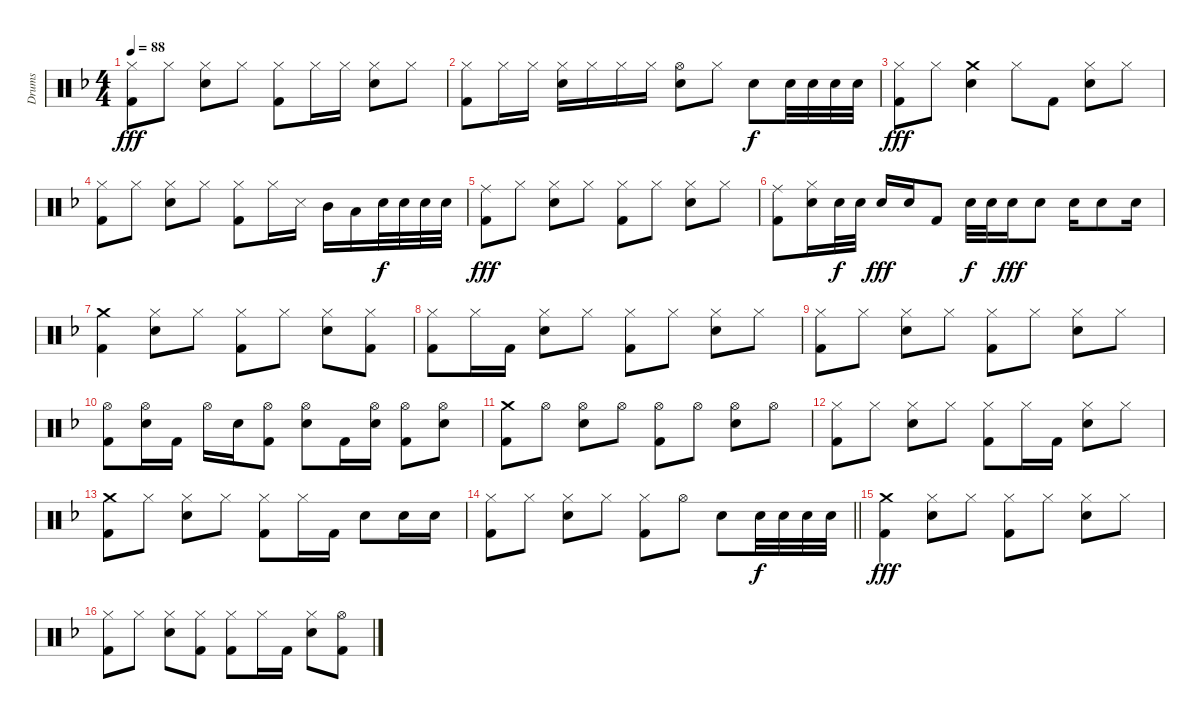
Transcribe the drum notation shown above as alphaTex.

\track ("Drums" "Drums") {instrument percussion}
\staff {score}
\articulation defaults
\ts (4 4)
\tempo 88
\clef neutral
\ks dminor
("Hi-Hat (closed)" "Kick (hit) 2").8{dy fff} "Hi-Hat (closed)".8 ("Hi-Hat (closed)" "Snare (hit) 2").8 "Hi-Hat (closed)".8 ("Hi-Hat (closed)" "Kick (hit) 2").8 "Hi-Hat (closed)".16 "Hi-Hat (closed)".16 ("Hi-Hat (closed)" "Snare (hit) 2").8 "Hi-Hat (closed)".8 |
("Hi-Hat (closed)" "Kick (hit) 2").8 "Hi-Hat (closed)".16 "Hi-Hat (closed)".16 ("Hi-Hat (closed)" "Snare (hit) 2").16 "Hi-Hat (closed)".16 "Hi-Hat (closed)".16 "Hi-Hat (closed)".16 ("Hi-Hat (open)" "Snare (hit) 2").8 "Hi-Hat (closed)".8 "Snare (hit) 2".8{dy f} "Snare (hit) 2".32 "Snare (hit) 2".32 "Snare (hit) 2".32 "Snare (hit) 2".32 |
("Hi-Hat (closed)" "Kick (hit) 2").8{dy fff} "Hi-Hat (closed)".8 ("Crash medium (hit)" "Snare (hit) 2").4 "Hi-Hat (closed)".8 "Kick (hit) 2".8 ("Hi-Hat (closed)" "Snare (hit) 2").8 "Hi-Hat (closed)".8 |
("Hi-Hat (closed)" "Kick (hit) 2").8 "Hi-Hat (closed)".8 ("Hi-Hat (closed)" "Snare (hit) 2").8 "Hi-Hat (closed)".8 ("Hi-Hat (closed)" "Kick (hit) 2").8 "Hi-Hat (closed)".16 "Snare (side stick) 3".16 "Mid Tom (hit)".16 "Low Tom (hit)".16 "Snare (hit) 2".32{dy f} "Snare (hit) 2".32 "Snare (hit) 2".32 "Snare (hit) 2".32 |
("Ride (middle)" "Kick (hit) 2").8{dy fff} "Hi-Hat (closed)".8 ("Hi-Hat (closed)" "Snare (hit) 2").8 "Hi-Hat (closed)".8 ("Hi-Hat (closed)" "Kick (hit) 2").8 "Hi-Hat (closed)".8 ("Hi-Hat (closed)" "Snare (hit) 2").8 "Hi-Hat (closed)".8 |
("Ride (middle)" "Kick (hit) 2").8 ("Hi-Hat (closed)" "Snare (hit) 2").16 "Snare (hit) 2".32{dy f} "Snare (hit) 2".32 "Snare (hit) 2".16{dy fff} "Snare (hit) 2".16 "Kick (hit) 2".8 "Snare (hit) 2".32{dy f} "Snare (hit) 2".32 "Snare (hit) 2".16{dy fff} "Snare (hit) 2".8 "Snare (hit) 2".16 "Snare (hit) 2".8 "Snare (hit) 2".16 |
("Crash medium (hit)" "Kick (hit) 2").4 ("Hi-Hat (closed)" "Snare (hit) 2").8 "Hi-Hat (closed)".8 ("Hi-Hat (closed)" "Kick (hit) 2").8 "Hi-Hat (closed)".8 ("Hi-Hat (closed)" "Snare (hit) 2").8 ("Hi-Hat (closed)" "Kick (hit) 2").8 |
("Hi-Hat (closed)" "Kick (hit) 2").8 "Hi-Hat (closed)".16 "Kick (hit) 2".16 ("Hi-Hat (closed)" "Snare (hit) 2").8 "Hi-Hat (closed)".8 ("Hi-Hat (closed)" "Kick (hit) 2").8 "Hi-Hat (closed)".8 ("Hi-Hat (closed)" "Snare (hit) 2").8 "Hi-Hat (closed)".8 |
("Hi-Hat (closed)" "Kick (hit) 2").8 "Hi-Hat (closed)".8 ("Hi-Hat (closed)" "Snare (hit) 2").8 "Hi-Hat (closed)".8 ("Hi-Hat (closed)" "Kick (hit) 2").8 "Hi-Hat (closed)".8 ("Hi-Hat (closed)" "Snare (hit) 2").8 "Hi-Hat (closed)".8 |
("Hi-Hat (open)" "Kick (hit) 2").8 ("Hi-Hat (open)" "Snare (hit) 2").16 "Kick (hit) 2".16 "Hi-Hat (open)".16 "Snare (hit) 2".16 ("Hi-Hat (open)" "Kick (hit) 2").8 ("Hi-Hat (open)" "Snare (hit) 2").8 "Kick (hit) 2".16 ("Hi-Hat (open)" "Snare (hit) 2").16 ("Hi-Hat (open)" "Kick (hit) 2").8 ("Hi-Hat (open)" "Snare (hit) 2").8 |
("Crash medium (hit)" "Kick (hit) 2").8 "Hi-Hat (open)".8 ("Hi-Hat (open)" "Snare (hit) 2").8 "Hi-Hat (open)".8 ("Hi-Hat (open)" "Kick (hit) 2").8 "Hi-Hat (open)".8 ("Hi-Hat (open)" "Snare (hit) 2").8 "Hi-Hat (open)".8 |
("Hi-Hat (closed)" "Kick (hit) 2").8 "Hi-Hat (closed)".8 ("Hi-Hat (closed)" "Snare (hit) 2").8 "Hi-Hat (closed)".8 ("Hi-Hat (closed)" "Kick (hit) 2").8 "Hi-Hat (closed)".16 "Kick (hit) 2".16 ("Hi-Hat (closed)" "Snare (hit) 2").8 "Hi-Hat (closed)".8 |
("Crash medium (hit)" "Kick (hit) 2").8 "Hi-Hat (closed)".8 ("Hi-Hat (closed)" "Snare (hit) 2").8 "Hi-Hat (closed)".8 ("Hi-Hat (closed)" "Kick (hit) 2").8 "Hi-Hat (closed)".16 "Kick (hit) 2".16 "Snare (hit) 2".8 "Snare (hit) 2".16 "Snare (hit) 2".16 |
\barLineRight lightlight
("Hi-Hat (closed)" "Kick (hit) 2").8 "Hi-Hat (closed)".8 ("Hi-Hat (closed)" "Snare (hit) 2").8 "Hi-Hat (closed)".8 ("Hi-Hat (closed)" "Kick (hit) 2").8 "Hi-Hat (open)".8 "Snare (hit) 2".8 "Snare (hit) 2".32{dy f} "Snare (hit) 2".32 "Snare (hit) 2".32 "Snare (hit) 2".32 |
("Crash medium (hit)" "Kick (hit) 2").4{dy fff} ("Hi-Hat (closed)" "Snare (hit) 2").8 "Hi-Hat (closed)".8 ("Hi-Hat (closed)" "Kick (hit) 2").8 "Hi-Hat (closed)".8 ("Hi-Hat (closed)" "Snare (hit) 2").8 "Hi-Hat (closed)".8 |
("Hi-Hat (closed)" "Kick (hit) 2").8 "Hi-Hat (closed)".8 ("Hi-Hat (closed)" "Snare (hit) 2").8 ("Hi-Hat (closed)" "Kick (hit) 2").8 ("Hi-Hat (closed)" "Kick (hit) 2").8 "Hi-Hat (closed)".16 "Kick (hit) 2".16 ("Hi-Hat (closed)" "Snare (hit) 2").8 ("Hi-Hat (open)" "Kick (hit) 2").8
